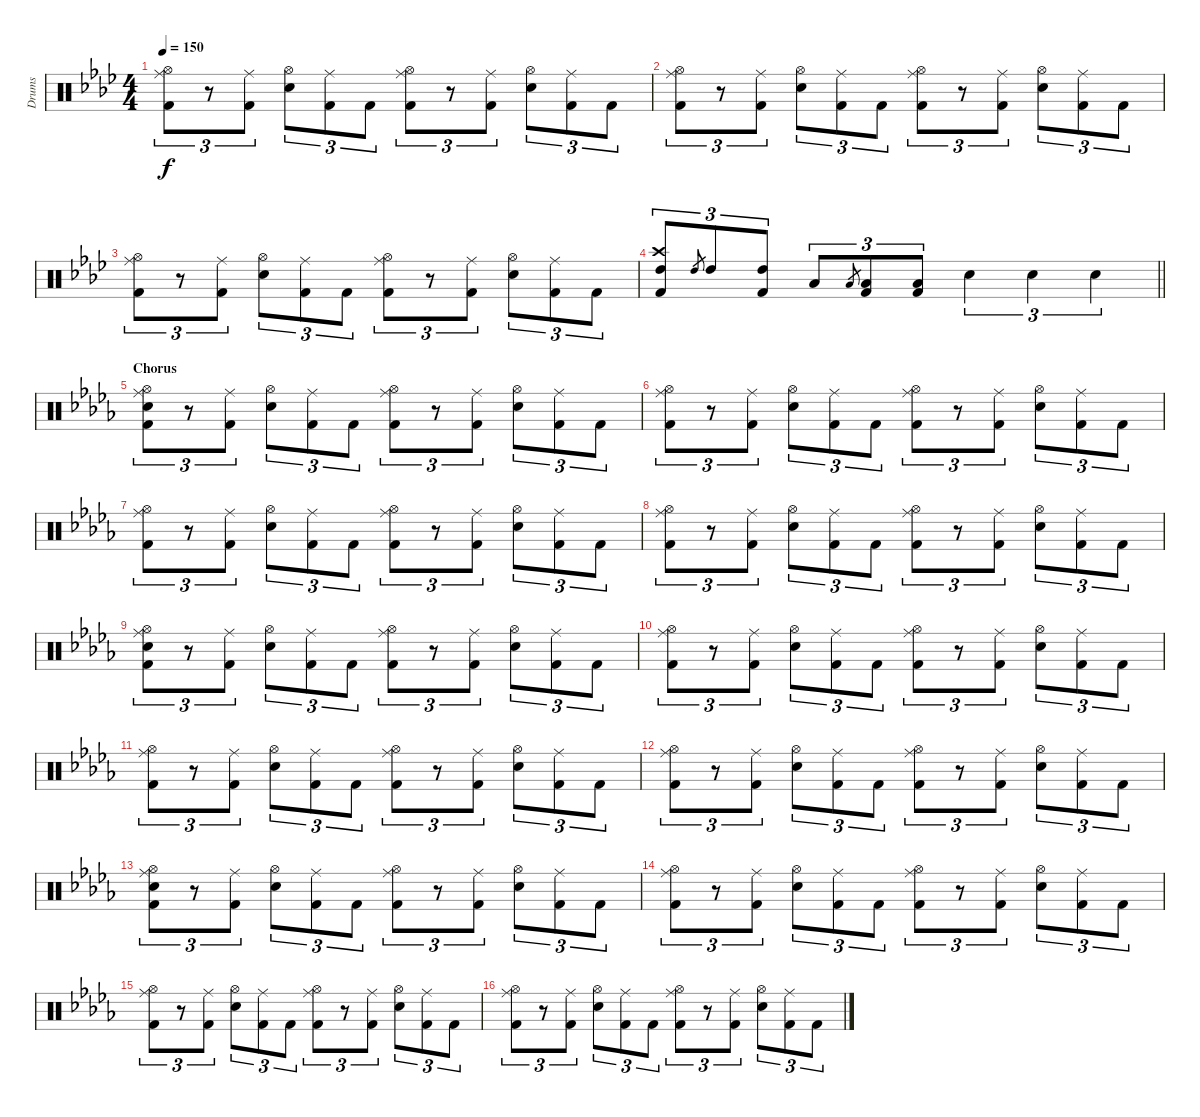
\track ("Drums" "Drums") {instrument percussion}
\staff {score}
\articulation defaults
\ts (4 4)
\tempo 150
\clef neutral
\ks fminor
("Hi-Hat (open)" "Ride (middle)" "Kick (hit) 2").8{tu (3 2) dy f} r.8{tu (3 2)} ("Ride (middle)" "Kick (hit) 2").8{tu (3 2)} ("Hi-Hat (open)" "Snare (hit) 2").8{tu (3 2)} ("Ride (middle)" "Kick (hit) 2").8{tu (3 2)} "Kick (hit) 2".8{tu (3 2)} ("Hi-Hat (open)" "Ride (middle)" "Kick (hit) 2").8{tu (3 2)} r.8{tu (3 2)} ("Ride (middle)" "Kick (hit) 2").8{tu (3 2)} ("Hi-Hat (open)" "Snare (hit) 2").8{tu (3 2)} ("Ride (middle)" "Kick (hit) 2").8{tu (3 2)} "Kick (hit) 2".8{tu (3 2)} |
("Hi-Hat (open)" "Ride (middle)" "Kick (hit) 2").8{tu (3 2)} r.8{tu (3 2)} ("Ride (middle)" "Kick (hit) 2").8{tu (3 2)} ("Hi-Hat (open)" "Snare (hit) 2").8{tu (3 2)} ("Ride (middle)" "Kick (hit) 2").8{tu (3 2)} "Kick (hit) 2".8{tu (3 2)} ("Hi-Hat (open)" "Ride (middle)" "Kick (hit) 2").8{tu (3 2)} r.8{tu (3 2)} ("Ride (middle)" "Kick (hit) 2").8{tu (3 2)} ("Hi-Hat (open)" "Snare (hit) 2").8{tu (3 2)} ("Ride (middle)" "Kick (hit) 2").8{tu (3 2)} "Kick (hit) 2".8{tu (3 2)} |
("Hi-Hat (open)" "Ride (middle)" "Kick (hit) 2").8{tu (3 2)} r.8{tu (3 2)} ("Ride (middle)" "Kick (hit) 2").8{tu (3 2)} ("Hi-Hat (open)" "Snare (hit) 2").8{tu (3 2)} ("Ride (middle)" "Kick (hit) 2").8{tu (3 2)} "Kick (hit) 2".8{tu (3 2)} ("Hi-Hat (open)" "Ride (middle)" "Kick (hit) 2").8{tu (3 2)} r.8{tu (3 2)} ("Ride (middle)" "Kick (hit) 2").8{tu (3 2)} ("Hi-Hat (open)" "Snare (hit) 2").8{tu (3 2)} ("Ride (middle)" "Kick (hit) 2").8{tu (3 2)} "Kick (hit) 2".8{tu (3 2)} |
\barLineRight lightlight
("Crash high (hit)" "High Tom (hit)" "Kick (hit) 2").8{tu (3 2)} "High Tom (hit)".8{gr} "High Tom (hit)".8{tu (3 2)} ("High Tom (hit)" "Kick (hit) 2").8{tu (3 2)} "Low Tom (hit)".8{tu (3 2)} "Low Tom (hit)".8{gr} ("Low Tom (hit)" "Kick (hit) 2").8{tu (3 2)} ("Low Tom (hit)" "Kick (hit) 2").8{tu (3 2)} "Snare (hit) 2".4{tu (3 2)} "Snare (hit) 2".4{tu (3 2)} "Snare (hit) 2".4{tu (3 2)} |
\section ("" "Chorus")
\ks bbminor
("Snare (hit)" "Hi-Hat (open)" "Ride (middle)" "Kick (hit) 2").8{tu (3 2)} r.8{tu (3 2)} ("Ride (middle)" "Kick (hit) 2").8{tu (3 2)} ("Hi-Hat (open)" "Snare (hit) 2").8{tu (3 2)} ("Ride (middle)" "Kick (hit) 2").8{tu (3 2)} "Kick (hit) 2".8{tu (3 2)} ("Hi-Hat (open)" "Ride (middle)" "Kick (hit) 2").8{tu (3 2)} r.8{tu (3 2)} ("Ride (middle)" "Kick (hit) 2").8{tu (3 2)} ("Hi-Hat (open)" "Snare (hit) 2").8{tu (3 2)} ("Ride (middle)" "Kick (hit) 2").8{tu (3 2)} "Kick (hit) 2".8{tu (3 2)} |
("Hi-Hat (open)" "Ride (middle)" "Kick (hit) 2").8{tu (3 2)} r.8{tu (3 2)} ("Ride (middle)" "Kick (hit) 2").8{tu (3 2)} ("Hi-Hat (open)" "Snare (hit) 2").8{tu (3 2)} ("Ride (middle)" "Kick (hit) 2").8{tu (3 2)} "Kick (hit) 2".8{tu (3 2)} ("Hi-Hat (open)" "Ride (middle)" "Kick (hit) 2").8{tu (3 2)} r.8{tu (3 2)} ("Ride (middle)" "Kick (hit) 2").8{tu (3 2)} ("Hi-Hat (open)" "Snare (hit) 2").8{tu (3 2)} ("Ride (middle)" "Kick (hit) 2").8{tu (3 2)} "Kick (hit) 2".8{tu (3 2)} |
("Hi-Hat (open)" "Ride (middle)" "Kick (hit) 2").8{tu (3 2)} r.8{tu (3 2)} ("Ride (middle)" "Kick (hit) 2").8{tu (3 2)} ("Hi-Hat (open)" "Snare (hit) 2").8{tu (3 2)} ("Ride (middle)" "Kick (hit) 2").8{tu (3 2)} "Kick (hit) 2".8{tu (3 2)} ("Hi-Hat (open)" "Ride (middle)" "Kick (hit) 2").8{tu (3 2)} r.8{tu (3 2)} ("Ride (middle)" "Kick (hit) 2").8{tu (3 2)} ("Hi-Hat (open)" "Snare (hit) 2").8{tu (3 2)} ("Ride (middle)" "Kick (hit) 2").8{tu (3 2)} "Kick (hit) 2".8{tu (3 2)} |
("Hi-Hat (open)" "Ride (middle)" "Kick (hit) 2").8{tu (3 2)} r.8{tu (3 2)} ("Ride (middle)" "Kick (hit) 2").8{tu (3 2)} ("Hi-Hat (open)" "Snare (hit) 2").8{tu (3 2)} ("Ride (middle)" "Kick (hit) 2").8{tu (3 2)} "Kick (hit) 2".8{tu (3 2)} ("Hi-Hat (open)" "Ride (middle)" "Kick (hit) 2").8{tu (3 2)} r.8{tu (3 2)} ("Ride (middle)" "Kick (hit) 2").8{tu (3 2)} ("Hi-Hat (open)" "Snare (hit) 2").8{tu (3 2)} ("Ride (middle)" "Kick (hit) 2").8{tu (3 2)} "Kick (hit) 2".8{tu (3 2)} |
("Snare (hit)" "Hi-Hat (open)" "Ride (middle)" "Kick (hit) 2").8{tu (3 2)} r.8{tu (3 2)} ("Ride (middle)" "Kick (hit) 2").8{tu (3 2)} ("Hi-Hat (open)" "Snare (hit) 2").8{tu (3 2)} ("Ride (middle)" "Kick (hit) 2").8{tu (3 2)} "Kick (hit) 2".8{tu (3 2)} ("Hi-Hat (open)" "Ride (middle)" "Kick (hit) 2").8{tu (3 2)} r.8{tu (3 2)} ("Ride (middle)" "Kick (hit) 2").8{tu (3 2)} ("Hi-Hat (open)" "Snare (hit) 2").8{tu (3 2)} ("Ride (middle)" "Kick (hit) 2").8{tu (3 2)} "Kick (hit) 2".8{tu (3 2)} |
("Hi-Hat (open)" "Ride (middle)" "Kick (hit) 2").8{tu (3 2)} r.8{tu (3 2)} ("Ride (middle)" "Kick (hit) 2").8{tu (3 2)} ("Hi-Hat (open)" "Snare (hit) 2").8{tu (3 2)} ("Ride (middle)" "Kick (hit) 2").8{tu (3 2)} "Kick (hit) 2".8{tu (3 2)} ("Hi-Hat (open)" "Ride (middle)" "Kick (hit) 2").8{tu (3 2)} r.8{tu (3 2)} ("Ride (middle)" "Kick (hit) 2").8{tu (3 2)} ("Hi-Hat (open)" "Snare (hit) 2").8{tu (3 2)} ("Ride (middle)" "Kick (hit) 2").8{tu (3 2)} "Kick (hit) 2".8{tu (3 2)} |
("Hi-Hat (open)" "Ride (middle)" "Kick (hit) 2").8{tu (3 2)} r.8{tu (3 2)} ("Ride (middle)" "Kick (hit) 2").8{tu (3 2)} ("Hi-Hat (open)" "Snare (hit) 2").8{tu (3 2)} ("Ride (middle)" "Kick (hit) 2").8{tu (3 2)} "Kick (hit) 2".8{tu (3 2)} ("Hi-Hat (open)" "Ride (middle)" "Kick (hit) 2").8{tu (3 2)} r.8{tu (3 2)} ("Ride (middle)" "Kick (hit) 2").8{tu (3 2)} ("Hi-Hat (open)" "Snare (hit) 2").8{tu (3 2)} ("Ride (middle)" "Kick (hit) 2").8{tu (3 2)} "Kick (hit) 2".8{tu (3 2)} |
("Hi-Hat (open)" "Ride (middle)" "Kick (hit) 2").8{tu (3 2)} r.8{tu (3 2)} ("Ride (middle)" "Kick (hit) 2").8{tu (3 2)} ("Hi-Hat (open)" "Snare (hit) 2").8{tu (3 2)} ("Ride (middle)" "Kick (hit) 2").8{tu (3 2)} "Kick (hit) 2".8{tu (3 2)} ("Hi-Hat (open)" "Ride (middle)" "Kick (hit) 2").8{tu (3 2)} r.8{tu (3 2)} ("Ride (middle)" "Kick (hit) 2").8{tu (3 2)} ("Hi-Hat (open)" "Snare (hit) 2").8{tu (3 2)} ("Ride (middle)" "Kick (hit) 2").8{tu (3 2)} "Kick (hit) 2".8{tu (3 2)} |
("Snare (hit)" "Hi-Hat (open)" "Ride (middle)" "Kick (hit) 2").8{tu (3 2)} r.8{tu (3 2)} ("Ride (middle)" "Kick (hit) 2").8{tu (3 2)} ("Hi-Hat (open)" "Snare (hit) 2").8{tu (3 2)} ("Ride (middle)" "Kick (hit) 2").8{tu (3 2)} "Kick (hit) 2".8{tu (3 2)} ("Hi-Hat (open)" "Ride (middle)" "Kick (hit) 2").8{tu (3 2)} r.8{tu (3 2)} ("Ride (middle)" "Kick (hit) 2").8{tu (3 2)} ("Hi-Hat (open)" "Snare (hit) 2").8{tu (3 2)} ("Ride (middle)" "Kick (hit) 2").8{tu (3 2)} "Kick (hit) 2".8{tu (3 2)} |
("Hi-Hat (open)" "Ride (middle)" "Kick (hit) 2").8{tu (3 2)} r.8{tu (3 2)} ("Ride (middle)" "Kick (hit) 2").8{tu (3 2)} ("Hi-Hat (open)" "Snare (hit) 2").8{tu (3 2)} ("Ride (middle)" "Kick (hit) 2").8{tu (3 2)} "Kick (hit) 2".8{tu (3 2)} ("Hi-Hat (open)" "Ride (middle)" "Kick (hit) 2").8{tu (3 2)} r.8{tu (3 2)} ("Ride (middle)" "Kick (hit) 2").8{tu (3 2)} ("Hi-Hat (open)" "Snare (hit) 2").8{tu (3 2)} ("Ride (middle)" "Kick (hit) 2").8{tu (3 2)} "Kick (hit) 2".8{tu (3 2)} |
("Hi-Hat (open)" "Ride (middle)" "Kick (hit) 2").8{tu (3 2)} r.8{tu (3 2)} ("Ride (middle)" "Kick (hit) 2").8{tu (3 2)} ("Hi-Hat (open)" "Snare (hit) 2").8{tu (3 2)} ("Ride (middle)" "Kick (hit) 2").8{tu (3 2)} "Kick (hit) 2".8{tu (3 2)} ("Hi-Hat (open)" "Ride (middle)" "Kick (hit) 2").8{tu (3 2)} r.8{tu (3 2)} ("Ride (middle)" "Kick (hit) 2").8{tu (3 2)} ("Hi-Hat (open)" "Snare (hit) 2").8{tu (3 2)} ("Ride (middle)" "Kick (hit) 2").8{tu (3 2)} "Kick (hit) 2".8{tu (3 2)} |
("Hi-Hat (open)" "Ride (middle)" "Kick (hit) 2").8{tu (3 2)} r.8{tu (3 2)} ("Ride (middle)" "Kick (hit) 2").8{tu (3 2)} ("Hi-Hat (open)" "Snare (hit) 2").8{tu (3 2)} ("Ride (middle)" "Kick (hit) 2").8{tu (3 2)} "Kick (hit) 2".8{tu (3 2)} ("Hi-Hat (open)" "Ride (middle)" "Kick (hit) 2").8{tu (3 2)} r.8{tu (3 2)} ("Ride (middle)" "Kick (hit) 2").8{tu (3 2)} ("Hi-Hat (open)" "Snare (hit) 2").8{tu (3 2)} ("Ride (middle)" "Kick (hit) 2").8{tu (3 2)} "Kick (hit) 2".8{tu (3 2)}
